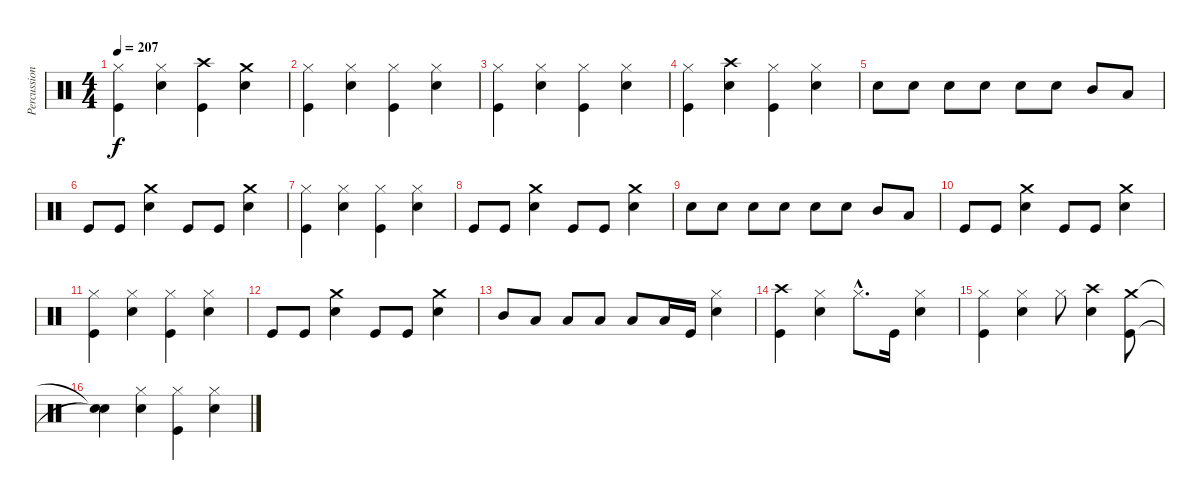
\track ("Percussion" "Percussion") {instrument percussion}
\staff {score}
\articulation defaults
\ts (4 4)
\tempo 207
\clef neutral
\ks c
("Hi-Hat (closed)" "Kick (hit)").4{dy f} ("Hi-Hat (closed)" "Electric Snare (hit)").4 ("Crash high (hit)" "Kick (hit)").4 ("Crash medium (hit)" "Electric Snare (hit)").4 |
("Hi-Hat (closed)" "Kick (hit)").4 ("Hi-Hat (closed)" "Electric Snare (hit)").4 ("Hi-Hat (closed)" "Kick (hit)").4 ("Hi-Hat (closed)" "Electric Snare (hit)").4 |
("Hi-Hat (closed)" "Kick (hit)").4 ("Hi-Hat (closed)" "Electric Snare (hit)").4 ("Hi-Hat (closed)" "Kick (hit)").4 ("Hi-Hat (closed)" "Electric Snare (hit)").4 |
("Hi-Hat (closed)" "Kick (hit)").4 ("Crash high (hit)" "Electric Snare (hit)").4 ("Hi-Hat (closed)" "Kick (hit)").4 ("Hi-Hat (closed)" "Electric Snare (hit)").4 |
"Electric Snare (hit)".8 "Electric Snare (hit)".8 "Electric Snare (hit)".8 "Electric Snare (hit)".8 "Electric Snare (hit)".8 "Electric Snare (hit)".8 "Mid Tom (hit)".8 "Low Floor Tom (hit)".8 |
"Kick (hit)".8 "Kick (hit)".8 ("Crash medium (hit)" "Electric Snare (hit)").4 "Kick (hit)".8 "Kick (hit)".8 ("Crash medium (hit)" "Electric Snare (hit)").4 |
("Hi-Hat (closed)" "Kick (hit)").4 ("Hi-Hat (closed)" "Electric Snare (hit)").4 ("Hi-Hat (closed)" "Kick (hit)").4 ("Hi-Hat (closed)" "Electric Snare (hit)").4 |
"Kick (hit)".8 "Kick (hit)".8 ("Crash medium (hit)" "Electric Snare (hit)").4 "Kick (hit)".8 "Kick (hit)".8 ("Crash medium (hit)" "Electric Snare (hit)").4 |
"Electric Snare (hit)".8 "Electric Snare (hit)".8 "Electric Snare (hit)".8 "Electric Snare (hit)".8 "Electric Snare (hit)".8 "Electric Snare (hit)".8 "Mid Tom (hit)".8 "Low Floor Tom (hit)".8 |
"Kick (hit)".8 "Kick (hit)".8 ("Crash medium (hit)" "Electric Snare (hit)").4 "Kick (hit)".8 "Kick (hit)".8 ("Crash medium (hit)" "Electric Snare (hit)").4 |
("Hi-Hat (closed)" "Kick (hit)").4 ("Hi-Hat (closed)" "Electric Snare (hit)").4 ("Hi-Hat (closed)" "Kick (hit)").4 ("Hi-Hat (closed)" "Electric Snare (hit)").4 |
"Kick (hit)".8 "Kick (hit)".8 ("Crash medium (hit)" "Electric Snare (hit)").4 "Kick (hit)".8 "Kick (hit)".8 ("Crash medium (hit)" "Electric Snare (hit)").4 |
"Mid Tom (hit)".8 "Low Tom (hit)".8 "Low Floor Tom (hit)".8 "Low Tom (hit)".8 "Low Floor Tom (hit)".8 "Low Floor Tom (hit)".16 "Kick (hit)".16 ("Hi-Hat (closed)" "Electric Snare (hit)").4 |
("Crash high (hit)" "Kick (hit)").4 ("Hi-Hat (closed)" "Electric Snare (hit)").4 "Hi-Hat (closed)"{hac}.8{d} "Kick (hit)".16 ("Hi-Hat (closed)" "Electric Snare (hit)").4 |
("Hi-Hat (closed)" "Kick (hit)").4 ("Hi-Hat (closed)" "Electric Snare (hit)").4 "Hi-Hat (closed)".8 ("Crash high (hit)" "Electric Snare (hit)").4 ("Crash medium (hit)" "Kick (hit)").8 |
("Snare (hit)"{t} "Snare (hit)"{t}).4 ("Hi-Hat (closed)" "Electric Snare (hit)").4 ("Hi-Hat (closed)" "Kick (hit)").4 ("Hi-Hat (closed)" "Electric Snare (hit)").4
